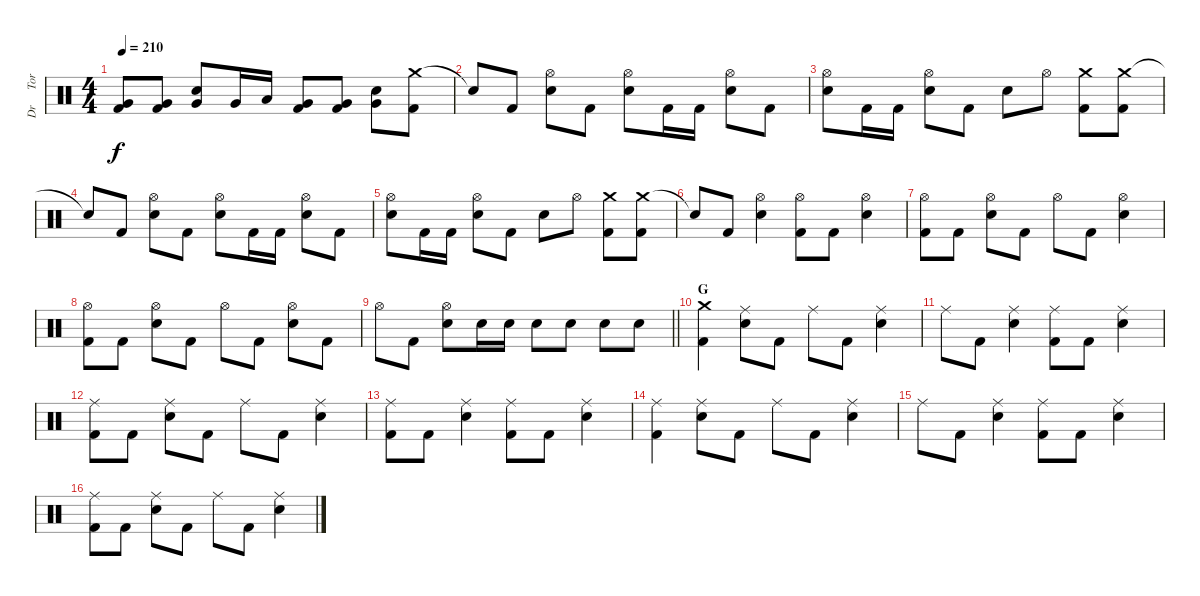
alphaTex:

\track ("Dr     Tora" "Dr     Tor") {instrument percussion}
\staff {score}
\articulation defaults
\ts (4 4)
\tempo 210
\clef neutral
\ks c
("Very Low Tom (hit)" "Kick (hit) 2").8{dy f} ("Very Low Tom (hit)" "Kick (hit) 2").8 ("Electric Snare (hit)" "Very Low Tom (hit)").8 "Very Low Tom (hit)".16 "Low Tom (hit)".16 ("Very Low Tom (hit)" "Kick (hit) 2").8 ("Very Low Tom (hit)" "Kick (hit) 2").8 ("Electric Snare (hit)" "Very Low Tom (hit)").8 ("Crash medium (hit)" "Kick (hit) 2").8 |
"Snare (hit)"{t}.8 "Kick (hit) 2".8 ("Hi-Hat (open)" "Electric Snare (hit)").8 "Kick (hit) 2".8 ("Hi-Hat (open)" "Electric Snare (hit)").8 "Kick (hit) 2".16 "Kick (hit) 2".16 ("Hi-Hat (open)" "Electric Snare (hit)").8 "Kick (hit) 2".8 |
("Hi-Hat (open)" "Electric Snare (hit)").8 "Kick (hit) 2".16 "Kick (hit) 2".16 ("Hi-Hat (open)" "Electric Snare (hit)").8 "Kick (hit) 2".8 "Electric Snare (hit)".8 "Hi-Hat (open)".8 ("Crash medium (hit)" "Kick (hit) 2").8 ("Crash medium (hit)" "Kick (hit) 2").8 |
"Snare (hit)"{t}.8 "Kick (hit) 2".8 ("Hi-Hat (open)" "Electric Snare (hit)").8 "Kick (hit) 2".8 ("Hi-Hat (open)" "Electric Snare (hit)").8 "Kick (hit) 2".16 "Kick (hit) 2".16 ("Hi-Hat (open)" "Electric Snare (hit)").8 "Kick (hit) 2".8 |
("Hi-Hat (open)" "Electric Snare (hit)").8 "Kick (hit) 2".16 "Kick (hit) 2".16 ("Hi-Hat (open)" "Electric Snare (hit)").8 "Kick (hit) 2".8 "Electric Snare (hit)".8 "Hi-Hat (open)".8 ("Crash medium (hit)" "Kick (hit) 2").8 ("Crash medium (hit)" "Kick (hit) 2").8 |
"Snare (hit)"{t}.8 "Kick (hit) 2".8 ("Hi-Hat (open)" "Electric Snare (hit)").4 ("Hi-Hat (open)" "Kick (hit) 2").8 "Kick (hit) 2".8 ("Hi-Hat (open)" "Electric Snare (hit)").4 |
("Hi-Hat (open)" "Kick (hit) 2").8 "Kick (hit) 2".8 ("Hi-Hat (open)" "Electric Snare (hit)").8 "Kick (hit) 2".8 "Hi-Hat (open)".8 "Kick (hit) 2".8 ("Hi-Hat (open)" "Electric Snare (hit)").4 |
("Hi-Hat (open)" "Kick (hit) 2").8 "Kick (hit) 2".8 ("Hi-Hat (open)" "Electric Snare (hit)").8 "Kick (hit) 2".8 "Hi-Hat (open)".8 "Kick (hit) 2".8 ("Hi-Hat (open)" "Electric Snare (hit)").8 "Kick (hit) 2".8 |
\barLineRight lightlight "Hi-Hat (open)".8 "Kick (hit) 2".8
("Hi-Hat (open)" "Electric Snare (hit)").8 "Electric Snare (hit)".16 "Electric Snare (hit)".16 "Electric Snare (hit)".8 "Electric Snare (hit)".8 "Electric Snare (hit)".8 "Electric Snare (hit)".8 |
\section ("" "G")
("Crash medium (hit)" "Kick (hit) 2").4 ("Ride (middle)" "Electric Snare (hit)").8 "Kick (hit) 2".8 "Ride (middle)".8 "Kick (hit) 2".8 ("Ride (middle)" "Electric Snare (hit)").4 |
"Ride (middle)".8 "Kick (hit) 2".8 ("Ride (middle)" "Electric Snare (hit)").4 ("Ride (middle)" "Kick (hit) 2").8 "Kick (hit) 2".8 ("Ride (middle)" "Electric Snare (hit)").4 |
("Ride (middle)" "Kick (hit) 2").8 "Kick (hit) 2".8 ("Ride (middle)" "Electric Snare (hit)").8 "Kick (hit) 2".8 "Ride (middle)".8 "Kick (hit) 2".8 ("Ride (middle)" "Electric Snare (hit)").4 |
("Ride (middle)" "Kick (hit) 2").8 "Kick (hit) 2".8 ("Ride (middle)" "Electric Snare (hit)").4 ("Ride (middle)" "Kick (hit) 2").8 "Kick (hit) 2".8 ("Ride (middle)" "Electric Snare (hit)").4 |
("Ride (middle)" "Kick (hit) 2").4 ("Ride (middle)" "Electric Snare (hit)").8 "Kick (hit) 2".8 "Ride (middle)".8 "Kick (hit) 2".8 ("Ride (middle)" "Electric Snare (hit)").4 |
"Ride (middle)".8 "Kick (hit) 2".8 ("Ride (middle)" "Electric Snare (hit)").4 ("Ride (middle)" "Kick (hit) 2").8 "Kick (hit) 2".8 ("Ride (middle)" "Electric Snare (hit)").4 |
("Ride (middle)" "Kick (hit) 2").8 "Kick (hit) 2".8 ("Ride (middle)" "Electric Snare (hit)").8 "Kick (hit) 2".8 "Ride (middle)".8 "Kick (hit) 2".8 ("Ride (middle)" "Electric Snare (hit)").4
